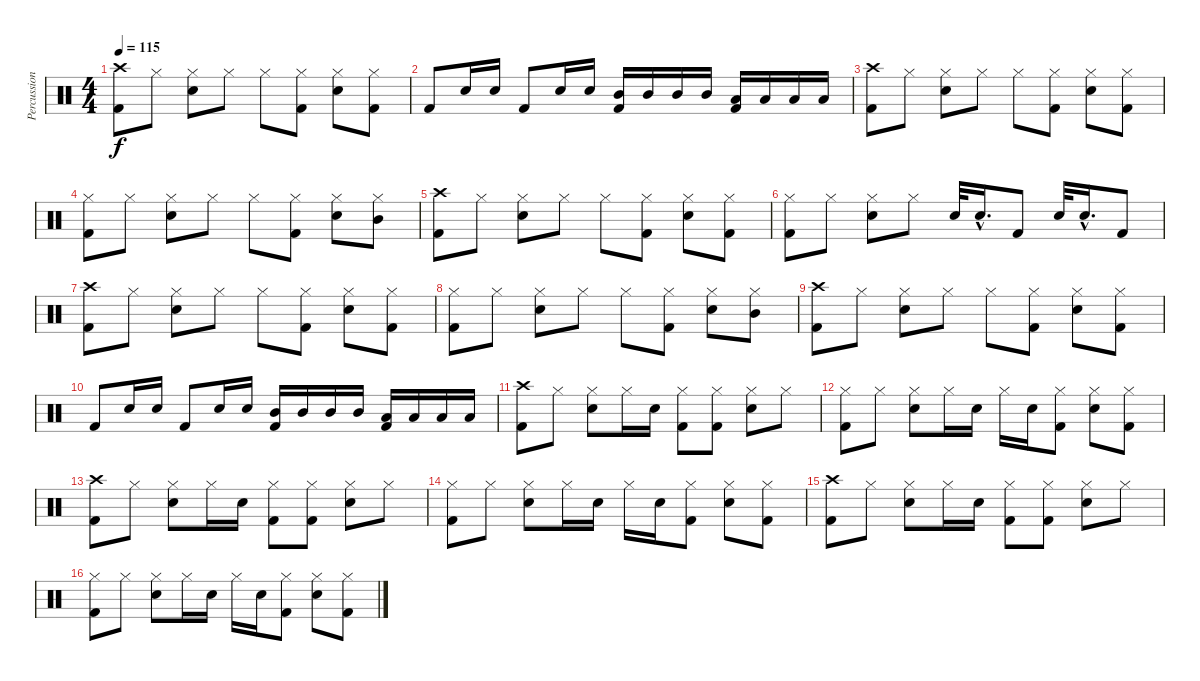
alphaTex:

\track ("Percussion" "Percussion") {instrument percussion}
\staff {score}
\articulation defaults
\ts (4 4)
\tempo 115
\clef neutral
\ks c
("Crash high (hit)" "Kick (hit) 2").8{dy f} "Hi-Hat (closed)".8 ("Hi-Hat (closed)" "Snare (hit) 2").8 "Hi-Hat (closed)".8 "Hi-Hat (closed)".8 ("Hi-Hat (closed)" "Kick (hit) 2").8 ("Hi-Hat (closed)" "Snare (hit) 2").8 ("Hi-Hat (closed)" "Kick (hit) 2").8 |
"Kick (hit) 2".8 "Snare (hit) 2".16 "Snare (hit) 2".16 "Kick (hit) 2".8 "Snare (hit) 2".16 "Snare (hit) 2".16 ("Mid Tom (hit)" "Kick (hit) 2").16 "Mid Tom (hit)".16 "Mid Tom (hit)".16 "Mid Tom (hit)".16 ("Low Tom (hit)" "Kick (hit) 2").16 "Low Tom (hit)".16 "Low Tom (hit)".16 "Low Tom (hit)".16 |
("Crash high (hit)" "Kick (hit) 2").8 "Hi-Hat (closed)".8 ("Hi-Hat (closed)" "Snare (hit) 2").8 "Hi-Hat (closed)".8 "Hi-Hat (closed)".8 ("Hi-Hat (closed)" "Kick (hit) 2").8 ("Hi-Hat (closed)" "Snare (hit) 2").8 ("Hi-Hat (closed)" "Kick (hit) 2").8 |
("Hi-Hat (closed)" "Kick (hit) 2").8 "Hi-Hat (closed)".8 ("Hi-Hat (closed)" "Snare (hit) 2").8 "Hi-Hat (closed)".8 "Hi-Hat (closed)".8 ("Hi-Hat (closed)" "Kick (hit) 2").8 ("Hi-Hat (closed)" "Snare (hit) 2").8 ("Hi-Hat (closed)" "Mid Tom (hit)").8 |
("Crash high (hit)" "Kick (hit) 2").8 "Hi-Hat (closed)".8 ("Hi-Hat (closed)" "Snare (hit) 2").8 "Hi-Hat (closed)".8 "Hi-Hat (closed)".8 ("Hi-Hat (closed)" "Kick (hit) 2").8 ("Hi-Hat (closed)" "Snare (hit) 2").8 ("Hi-Hat (closed)" "Kick (hit) 2").8 |
("Hi-Hat (closed)" "Kick (hit) 2").8 "Hi-Hat (closed)".8 ("Hi-Hat (closed)" "Snare (hit) 2").8 "Hi-Hat (closed)".8 "Snare (hit) 2".32 "Snare (hit) 2"{hac}.16{d} "Kick (hit) 2".8 "Snare (hit) 2".32 "Snare (hit) 2"{hac}.16{d} "Kick (hit) 2".8 |
("Crash high (hit)" "Kick (hit) 2").8 "Hi-Hat (closed)".8 ("Hi-Hat (closed)" "Snare (hit) 2").8 "Hi-Hat (closed)".8 "Hi-Hat (closed)".8 ("Hi-Hat (closed)" "Kick (hit) 2").8 ("Hi-Hat (closed)" "Snare (hit) 2").8 ("Hi-Hat (closed)" "Kick (hit) 2").8 |
("Hi-Hat (closed)" "Kick (hit) 2").8 "Hi-Hat (closed)".8 ("Hi-Hat (closed)" "Snare (hit) 2").8 "Hi-Hat (closed)".8 "Hi-Hat (closed)".8 ("Hi-Hat (closed)" "Kick (hit) 2").8 ("Hi-Hat (closed)" "Snare (hit) 2").8 ("Hi-Hat (closed)" "Mid Tom (hit)").8 |
("Crash high (hit)" "Kick (hit) 2").8 "Hi-Hat (closed)".8 ("Hi-Hat (closed)" "Snare (hit) 2").8 "Hi-Hat (closed)".8 "Hi-Hat (closed)".8 ("Hi-Hat (closed)" "Kick (hit) 2").8 ("Hi-Hat (closed)" "Snare (hit) 2").8 ("Hi-Hat (closed)" "Kick (hit) 2").8 |
"Kick (hit) 2".8 "Snare (hit) 2".16 "Snare (hit) 2".16 "Kick (hit) 2".8 "Snare (hit) 2".16 "Snare (hit) 2".16 ("Mid Tom (hit)" "Kick (hit) 2").16 "Mid Tom (hit)".16 "Mid Tom (hit)".16 "Mid Tom (hit)".16 ("Low Tom (hit)" "Kick (hit) 2").16 "Low Tom (hit)".16 "Low Tom (hit)".16 "Low Tom (hit)".16 |
("Crash high (hit)" "Kick (hit) 2").8 "Hi-Hat (closed)".8 ("Hi-Hat (closed)" "Snare (hit) 2").8 "Hi-Hat (closed)".16 "Snare (hit) 2".16 ("Hi-Hat (closed)" "Kick (hit) 2").8 ("Hi-Hat (closed)" "Kick (hit) 2").8 ("Hi-Hat (closed)" "Snare (hit) 2").8 "Hi-Hat (closed)".8 |
("Hi-Hat (closed)" "Kick (hit) 2").8 "Hi-Hat (closed)".8 ("Hi-Hat (closed)" "Snare (hit) 2").8 "Hi-Hat (closed)".16 "Snare (hit) 2".16 "Hi-Hat (closed)".16 "Snare (hit) 2".16 ("Hi-Hat (closed)" "Kick (hit) 2").8 ("Hi-Hat (closed)" "Snare (hit) 2").8 ("Hi-Hat (closed)" "Kick (hit) 2").8 |
("Crash high (hit)" "Kick (hit) 2").8 "Hi-Hat (closed)".8 ("Hi-Hat (closed)" "Snare (hit) 2").8 "Hi-Hat (closed)".16 "Snare (hit) 2".16 ("Hi-Hat (closed)" "Kick (hit) 2").8 ("Hi-Hat (closed)" "Kick (hit) 2").8 ("Hi-Hat (closed)" "Snare (hit) 2").8 "Hi-Hat (closed)".8 |
("Hi-Hat (closed)" "Kick (hit) 2").8 "Hi-Hat (closed)".8 ("Hi-Hat (closed)" "Snare (hit) 2").8 "Hi-Hat (closed)".16 "Snare (hit) 2".16 "Hi-Hat (closed)".16 "Snare (hit) 2".16 ("Hi-Hat (closed)" "Kick (hit) 2").8 ("Hi-Hat (closed)" "Snare (hit) 2").8 ("Hi-Hat (closed)" "Kick (hit) 2").8 |
("Crash high (hit)" "Kick (hit) 2").8 "Hi-Hat (closed)".8 ("Hi-Hat (closed)" "Snare (hit) 2").8 "Hi-Hat (closed)".16 "Snare (hit) 2".16 ("Hi-Hat (closed)" "Kick (hit) 2").8 ("Hi-Hat (closed)" "Kick (hit) 2").8 ("Hi-Hat (closed)" "Snare (hit) 2").8 "Hi-Hat (closed)".8 |
("Hi-Hat (closed)" "Kick (hit) 2").8 "Hi-Hat (closed)".8 ("Hi-Hat (closed)" "Snare (hit) 2").8 "Hi-Hat (closed)".16 "Snare (hit) 2".16 "Hi-Hat (closed)".16 "Snare (hit) 2".16 ("Hi-Hat (closed)" "Kick (hit) 2").8 ("Hi-Hat (closed)" "Snare (hit) 2").8 ("Hi-Hat (closed)" "Kick (hit) 2").8
